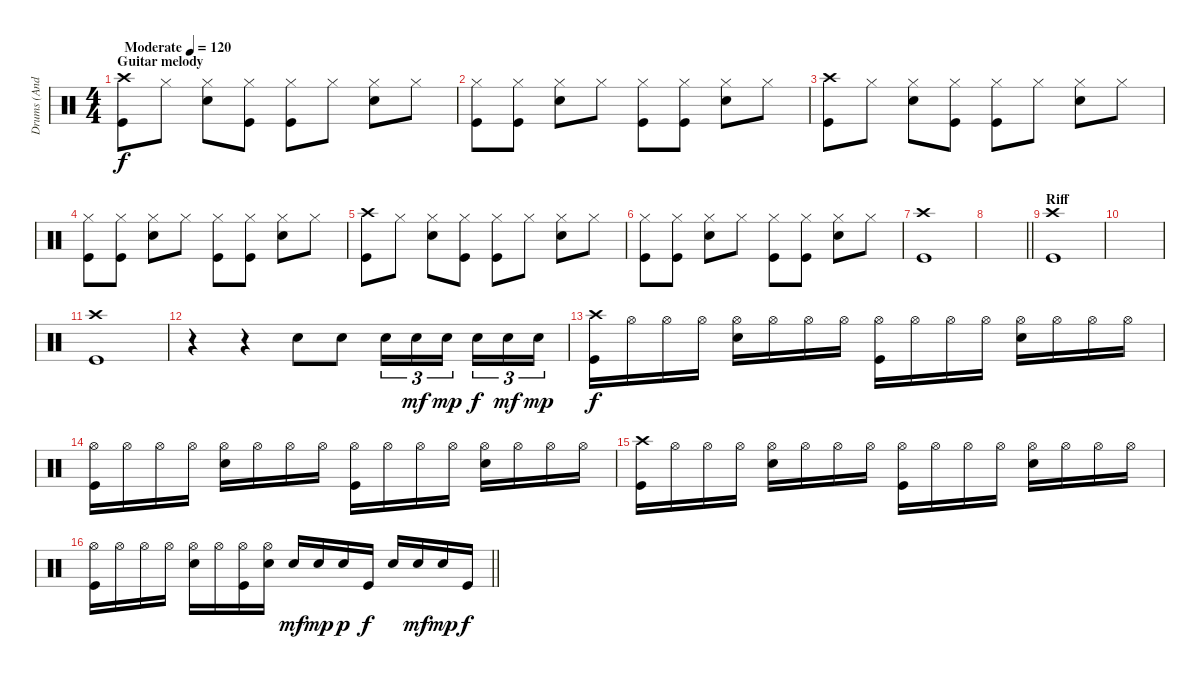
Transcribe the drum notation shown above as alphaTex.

\track ("Drums (Andy Parker)" "Drums (And") {instrument percussion}
\staff {score}
\articulation defaults
\ts (4 4)
\section ("" "Guitar melody")
\tempo (120 "Moderate")
\clef neutral
\ks c
("Crash high (hit)" "Kick (hit)").8{dy f} "Hi-Hat (closed)".8 ("Hi-Hat (closed)" "Electric Snare (hit)").8 ("Hi-Hat (closed)" "Kick (hit)").8 ("Hi-Hat (closed)" "Kick (hit)").8 "Hi-Hat (closed)".8 ("Hi-Hat (closed)" "Electric Snare (hit)").8 "Hi-Hat (closed)".8 |
("Hi-Hat (closed)" "Kick (hit)").8 ("Hi-Hat (closed)" "Kick (hit)").8 ("Hi-Hat (closed)" "Electric Snare (hit)").8 "Hi-Hat (closed)".8 ("Hi-Hat (closed)" "Kick (hit)").8 ("Hi-Hat (closed)" "Kick (hit)").8 ("Hi-Hat (closed)" "Electric Snare (hit)").8 "Hi-Hat (closed)".8 |
("Crash high (hit)" "Kick (hit)").8 "Hi-Hat (closed)".8 ("Hi-Hat (closed)" "Electric Snare (hit)").8 ("Hi-Hat (closed)" "Kick (hit)").8 ("Hi-Hat (closed)" "Kick (hit)").8 "Hi-Hat (closed)".8 ("Hi-Hat (closed)" "Electric Snare (hit)").8 "Hi-Hat (closed)".8 |
("Hi-Hat (closed)" "Kick (hit)").8 ("Hi-Hat (closed)" "Kick (hit)").8 ("Hi-Hat (closed)" "Electric Snare (hit)").8 "Hi-Hat (closed)".8 ("Hi-Hat (closed)" "Kick (hit)").8 ("Hi-Hat (closed)" "Kick (hit)").8 ("Hi-Hat (closed)" "Electric Snare (hit)").8 "Hi-Hat (closed)".8 |
("Crash high (hit)" "Kick (hit)").8 "Hi-Hat (closed)".8 ("Hi-Hat (closed)" "Electric Snare (hit)").8 ("Hi-Hat (closed)" "Kick (hit)").8 ("Hi-Hat (closed)" "Kick (hit)").8 "Hi-Hat (closed)".8 ("Hi-Hat (closed)" "Electric Snare (hit)").8 "Hi-Hat (closed)".8 |
("Hi-Hat (closed)" "Kick (hit)").8 ("Hi-Hat (closed)" "Kick (hit)").8 ("Hi-Hat (closed)" "Electric Snare (hit)").8 "Hi-Hat (closed)".8 ("Hi-Hat (closed)" "Kick (hit)").8 ("Hi-Hat (closed)" "Kick (hit)").8 ("Hi-Hat (closed)" "Electric Snare (hit)").8 "Hi-Hat (closed)".8 |
("Crash high (hit)" "Kick (hit)").1 |
\barLineRight lightlight
|
\section ("" "Riff")
("Crash high (hit)" "Kick (hit)").1 |
|
("Crash high (hit)" "Kick (hit)").1 |
r.4 r.4 "Electric Snare (hit)".8 "Electric Snare (hit)".8 "Electric Snare (hit)".16{tu (3 2)} "Electric Snare (hit)".16{tu (3 2) dy mf} "Electric Snare (hit)".16{tu (3 2) dy mp beam splitsecondary} "Electric Snare (hit)".16{tu (3 2) dy f} "Electric Snare (hit)".16{tu (3 2) dy mf} "Electric Snare (hit)".16{tu (3 2) dy mp} |
("Crash high (hit)" "Kick (hit)").16{dy f} "Hi-Hat (open)".16 "Hi-Hat (open)".16 "Hi-Hat (open)".16 ("Hi-Hat (open)" "Electric Snare (hit)").16 "Hi-Hat (open)".16 "Hi-Hat (open)".16 "Hi-Hat (open)".16 ("Hi-Hat (open)" "Kick (hit)").16 "Hi-Hat (open)".16 "Hi-Hat (open)".16 "Hi-Hat (open)".16 ("Hi-Hat (open)" "Electric Snare (hit)").16 "Hi-Hat (open)".16 "Hi-Hat (open)".16 "Hi-Hat (open)".16 |
("Hi-Hat (open)" "Kick (hit)").16 "Hi-Hat (open)".16 "Hi-Hat (open)".16 "Hi-Hat (open)".16 ("Hi-Hat (open)" "Electric Snare (hit)").16 "Hi-Hat (open)".16 "Hi-Hat (open)".16 "Hi-Hat (open)".16 ("Hi-Hat (open)" "Kick (hit)").16 "Hi-Hat (open)".16 "Hi-Hat (open)".16 "Hi-Hat (open)".16 ("Hi-Hat (open)" "Electric Snare (hit)").16 "Hi-Hat (open)".16 "Hi-Hat (open)".16 "Hi-Hat (open)".16 |
("Crash high (hit)" "Kick (hit)").16 "Hi-Hat (open)".16 "Hi-Hat (open)".16 "Hi-Hat (open)".16 ("Hi-Hat (open)" "Electric Snare (hit)").16 "Hi-Hat (open)".16 "Hi-Hat (open)".16 "Hi-Hat (open)".16 ("Hi-Hat (open)" "Kick (hit)").16 "Hi-Hat (open)".16 "Hi-Hat (open)".16 "Hi-Hat (open)".16 ("Hi-Hat (open)" "Electric Snare (hit)").16 "Hi-Hat (open)".16 "Hi-Hat (open)".16 "Hi-Hat (open)".16 |
\barLineRight lightlight
("Hi-Hat (open)" "Kick (hit)").16 "Hi-Hat (open)".16 "Hi-Hat (open)".16 "Hi-Hat (open)".16 ("Hi-Hat (open)" "Electric Snare (hit)").16 "Hi-Hat (open)".16 ("Hi-Hat (open)" "Kick (hit)").16 ("Hi-Hat (open)" "Electric Snare (hit)").16 "Electric Snare (hit)".16{dy mf} "Electric Snare (hit)".16{dy mp} "Electric Snare (hit)".16{dy p} "Kick (hit)".16{dy f} "Electric Snare (hit)".16 "Electric Snare (hit)".16{dy mf} "Electric Snare (hit)".16{dy mp} "Kick (hit)".16{dy f}
